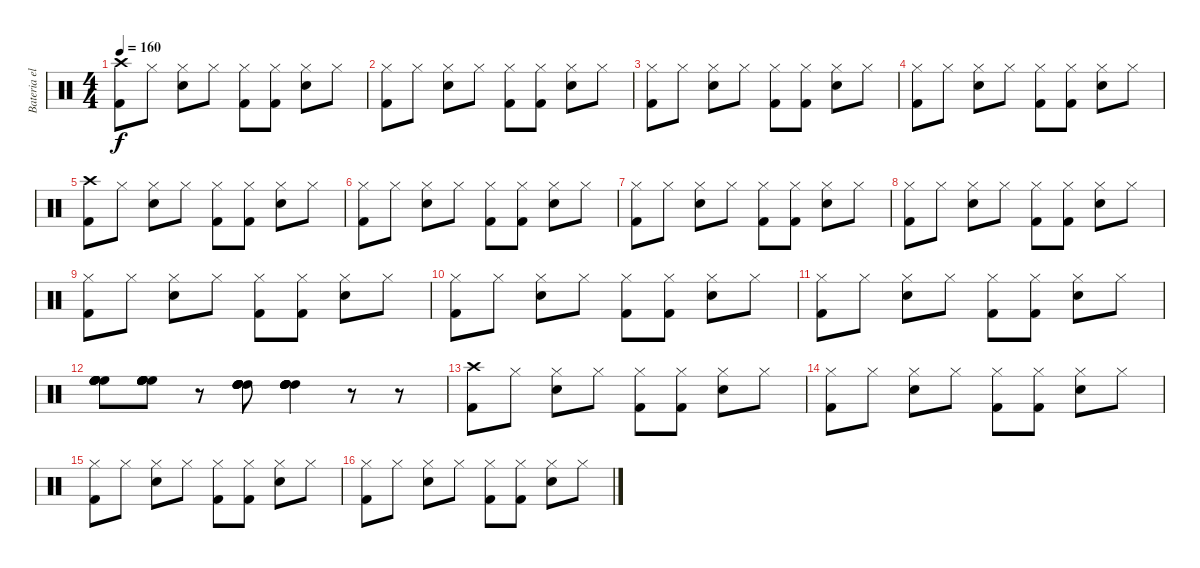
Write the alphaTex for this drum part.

\track ("Bateria electrica" "Bateria el") {instrument percussion}
\staff {score}
\articulation defaults
\ts (4 4)
\tempo 160
\clef neutral
\ks c
("Crash high (hit)" "Kick (hit) 2").8{dy f} "Hi-Hat (closed)".8 ("Hi-Hat (closed)" "Snare (hit) 2").8 "Hi-Hat (closed)".8 ("Hi-Hat (closed)" "Kick (hit) 2").8 ("Hi-Hat (closed)" "Kick (hit) 2").8 ("Hi-Hat (closed)" "Snare (hit) 2").8 "Hi-Hat (closed)".8 |
("Hi-Hat (closed)" "Kick (hit) 2").8 "Hi-Hat (closed)".8 ("Hi-Hat (closed)" "Snare (hit) 2").8 "Hi-Hat (closed)".8 ("Hi-Hat (closed)" "Kick (hit) 2").8 ("Hi-Hat (closed)" "Kick (hit) 2").8 ("Hi-Hat (closed)" "Snare (hit) 2").8 "Hi-Hat (closed)".8 |
("Hi-Hat (closed)" "Kick (hit) 2").8 "Hi-Hat (closed)".8 ("Hi-Hat (closed)" "Snare (hit) 2").8 "Hi-Hat (closed)".8 ("Hi-Hat (closed)" "Kick (hit) 2").8 ("Hi-Hat (closed)" "Kick (hit) 2").8 ("Hi-Hat (closed)" "Snare (hit) 2").8 "Hi-Hat (closed)".8 |
("Hi-Hat (closed)" "Kick (hit) 2").8 "Hi-Hat (closed)".8 ("Hi-Hat (closed)" "Snare (hit) 2").8 "Hi-Hat (closed)".8 ("Hi-Hat (closed)" "Kick (hit) 2").8 ("Hi-Hat (closed)" "Kick (hit) 2").8 ("Hi-Hat (closed)" "Snare (hit) 2").8 "Hi-Hat (closed)".8 |
("Crash high (hit)" "Kick (hit) 2").8 "Hi-Hat (closed)".8 ("Hi-Hat (closed)" "Snare (hit) 2").8 "Hi-Hat (closed)".8 ("Hi-Hat (closed)" "Kick (hit) 2").8 ("Hi-Hat (closed)" "Kick (hit) 2").8 ("Hi-Hat (closed)" "Snare (hit) 2").8 "Hi-Hat (closed)".8 |
("Hi-Hat (closed)" "Kick (hit) 2").8 "Hi-Hat (closed)".8 ("Hi-Hat (closed)" "Snare (hit) 2").8 "Hi-Hat (closed)".8 ("Hi-Hat (closed)" "Kick (hit) 2").8 ("Hi-Hat (closed)" "Kick (hit) 2").8 ("Hi-Hat (closed)" "Snare (hit) 2").8 "Hi-Hat (closed)".8 |
("Hi-Hat (closed)" "Kick (hit) 2").8 "Hi-Hat (closed)".8 ("Hi-Hat (closed)" "Snare (hit) 2").8 "Hi-Hat (closed)".8 ("Hi-Hat (closed)" "Kick (hit) 2").8 ("Hi-Hat (closed)" "Kick (hit) 2").8 ("Hi-Hat (closed)" "Snare (hit) 2").8 "Hi-Hat (closed)".8 |
("Hi-Hat (closed)" "Kick (hit) 2").8 "Hi-Hat (closed)".8 ("Hi-Hat (closed)" "Snare (hit) 2").8 "Hi-Hat (closed)".8 ("Hi-Hat (closed)" "Kick (hit) 2").8 ("Hi-Hat (closed)" "Kick (hit) 2").8 ("Hi-Hat (closed)" "Snare (hit) 2").8 "Hi-Hat (closed)".8 |
("Hi-Hat (closed)" "Kick (hit) 2").8 "Hi-Hat (closed)".8 ("Hi-Hat (closed)" "Snare (hit) 2").8 "Hi-Hat (closed)".8 ("Hi-Hat (closed)" "Kick (hit) 2").8 ("Hi-Hat (closed)" "Kick (hit) 2").8 ("Hi-Hat (closed)" "Snare (hit) 2").8 "Hi-Hat (closed)".8 |
("Hi-Hat (closed)" "Kick (hit) 2").8 "Hi-Hat (closed)".8 ("Hi-Hat (closed)" "Snare (hit) 2").8 "Hi-Hat (closed)".8 ("Hi-Hat (closed)" "Kick (hit) 2").8 ("Hi-Hat (closed)" "Kick (hit) 2").8 ("Hi-Hat (closed)" "Snare (hit) 2").8 "Hi-Hat (closed)".8 |
("Hi-Hat (closed)" "Kick (hit) 2").8 "Hi-Hat (closed)".8 ("Hi-Hat (closed)" "Snare (hit) 2").8 "Hi-Hat (closed)".8 ("Hi-Hat (closed)" "Kick (hit) 2").8 ("Hi-Hat (closed)" "Kick (hit) 2").8 ("Hi-Hat (closed)" "Snare (hit) 2").8 "Hi-Hat (closed)".8 |
("High Floor Tom (hit)" "High Floor Tom (hit)" "High Floor Tom (hit)" "High Floor Tom (hit)" "High Floor Tom (hit)" "High Floor Tom (hit)").8 ("High Floor Tom (hit)" "High Floor Tom (hit)" "High Floor Tom (hit)" "High Floor Tom (hit)" "High Floor Tom (hit)" "High Floor Tom (hit)").8 r.8 ("High Tom (hit)" "High Tom (hit)" "High Tom (hit)" "High Tom (hit)" "High Tom (hit)" "High Tom (hit)").8 ("High Tom (hit)" "High Tom (hit)" "High Tom (hit)" "High Tom (hit)" "High Tom (hit)" "High Tom (hit)").4 r.8 r.8 |
("Crash high (hit)" "Kick (hit) 2").8 "Hi-Hat (closed)".8 ("Hi-Hat (closed)" "Snare (hit) 2").8 "Hi-Hat (closed)".8 ("Hi-Hat (closed)" "Kick (hit) 2").8 ("Hi-Hat (closed)" "Kick (hit) 2").8 ("Hi-Hat (closed)" "Snare (hit) 2").8 "Hi-Hat (closed)".8 |
("Hi-Hat (closed)" "Kick (hit) 2").8 "Hi-Hat (closed)".8 ("Hi-Hat (closed)" "Snare (hit) 2").8 "Hi-Hat (closed)".8 ("Hi-Hat (closed)" "Kick (hit) 2").8 ("Hi-Hat (closed)" "Kick (hit) 2").8 ("Hi-Hat (closed)" "Snare (hit) 2").8 "Hi-Hat (closed)".8 |
("Hi-Hat (closed)" "Kick (hit) 2").8 "Hi-Hat (closed)".8 ("Hi-Hat (closed)" "Snare (hit) 2").8 "Hi-Hat (closed)".8 ("Hi-Hat (closed)" "Kick (hit) 2").8 ("Hi-Hat (closed)" "Kick (hit) 2").8 ("Hi-Hat (closed)" "Snare (hit) 2").8 "Hi-Hat (closed)".8 |
("Hi-Hat (closed)" "Kick (hit) 2").8 "Hi-Hat (closed)".8 ("Hi-Hat (closed)" "Snare (hit) 2").8 "Hi-Hat (closed)".8 ("Hi-Hat (closed)" "Kick (hit) 2").8 ("Hi-Hat (closed)" "Kick (hit) 2").8 ("Hi-Hat (closed)" "Snare (hit) 2").8 "Hi-Hat (closed)".8
